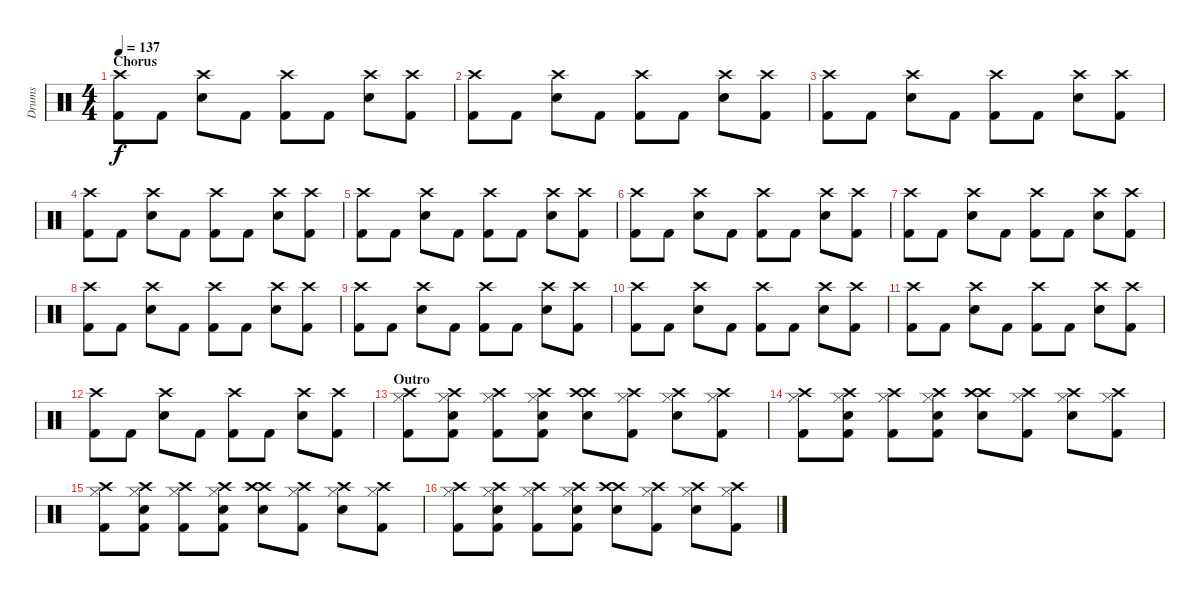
\track ("Drums" "Drums") {instrument percussion}
\staff {score}
\articulation defaults
\ts (4 4)
\section ("" "Chorus")
\tempo 137
\clef neutral
\ks c
("Kick (hit) 2" "Crash high (hit)").8{dy f} "Kick (hit) 2".8 ("Snare (hit) 2" "Crash high (hit)").8 "Kick (hit) 2".8 ("Kick (hit) 2" "Crash high (hit)").8 "Kick (hit) 2".8 ("Snare (hit) 2" "Crash high (hit)").8 ("Kick (hit) 2" "Crash high (hit)").8 |
("Kick (hit) 2" "Crash high (hit)").8 "Kick (hit) 2".8 ("Snare (hit) 2" "Crash high (hit)").8 "Kick (hit) 2".8 ("Kick (hit) 2" "Crash high (hit)").8 "Kick (hit) 2".8 ("Snare (hit) 2" "Crash high (hit)").8 ("Kick (hit) 2" "Crash high (hit)").8 |
("Kick (hit) 2" "Crash high (hit)").8 "Kick (hit) 2".8 ("Snare (hit) 2" "Crash high (hit)").8 "Kick (hit) 2".8 ("Kick (hit) 2" "Crash high (hit)").8 "Kick (hit) 2".8 ("Snare (hit) 2" "Crash high (hit)").8 ("Kick (hit) 2" "Crash high (hit)").8 |
("Kick (hit) 2" "Crash high (hit)").8 "Kick (hit) 2".8 ("Snare (hit) 2" "Crash high (hit)").8 "Kick (hit) 2".8 ("Kick (hit) 2" "Crash high (hit)").8 "Kick (hit) 2".8 ("Snare (hit) 2" "Crash high (hit)").8 ("Kick (hit) 2" "Crash high (hit)").8 |
("Kick (hit) 2" "Crash high (hit)").8 "Kick (hit) 2".8 ("Snare (hit) 2" "Crash high (hit)").8 "Kick (hit) 2".8 ("Kick (hit) 2" "Crash high (hit)").8 "Kick (hit) 2".8 ("Snare (hit) 2" "Crash high (hit)").8 ("Kick (hit) 2" "Crash high (hit)").8 |
("Kick (hit) 2" "Crash high (hit)").8 "Kick (hit) 2".8 ("Snare (hit) 2" "Crash high (hit)").8 "Kick (hit) 2".8 ("Kick (hit) 2" "Crash high (hit)").8 "Kick (hit) 2".8 ("Snare (hit) 2" "Crash high (hit)").8 ("Kick (hit) 2" "Crash high (hit)").8 |
("Kick (hit) 2" "Crash high (hit)").8 "Kick (hit) 2".8 ("Snare (hit) 2" "Crash high (hit)").8 "Kick (hit) 2".8 ("Kick (hit) 2" "Crash high (hit)").8 "Kick (hit) 2".8 ("Snare (hit) 2" "Crash high (hit)").8 ("Kick (hit) 2" "Crash high (hit)").8 |
("Kick (hit) 2" "Crash high (hit)").8 "Kick (hit) 2".8 ("Snare (hit) 2" "Crash high (hit)").8 "Kick (hit) 2".8 ("Kick (hit) 2" "Crash high (hit)").8 "Kick (hit) 2".8 ("Snare (hit) 2" "Crash high (hit)").8 ("Kick (hit) 2" "Crash high (hit)").8 |
("Kick (hit) 2" "Crash high (hit)").8 "Kick (hit) 2".8 ("Snare (hit) 2" "Crash high (hit)").8 "Kick (hit) 2".8 ("Kick (hit) 2" "Crash high (hit)").8 "Kick (hit) 2".8 ("Snare (hit) 2" "Crash high (hit)").8 ("Kick (hit) 2" "Crash high (hit)").8 |
("Kick (hit) 2" "Crash high (hit)").8 "Kick (hit) 2".8 ("Snare (hit) 2" "Crash high (hit)").8 "Kick (hit) 2".8 ("Kick (hit) 2" "Crash high (hit)").8 "Kick (hit) 2".8 ("Snare (hit) 2" "Crash high (hit)").8 ("Kick (hit) 2" "Crash high (hit)").8 |
("Kick (hit) 2" "Crash high (hit)").8 "Kick (hit) 2".8 ("Snare (hit) 2" "Crash high (hit)").8 "Kick (hit) 2".8 ("Kick (hit) 2" "Crash high (hit)").8 "Kick (hit) 2".8 ("Snare (hit) 2" "Crash high (hit)").8 ("Kick (hit) 2" "Crash high (hit)").8 |
("Kick (hit) 2" "Crash high (hit)").8 "Kick (hit) 2".8 ("Snare (hit) 2" "Crash high (hit)").8 "Kick (hit) 2".8 ("Kick (hit) 2" "Crash high (hit)").8 "Kick (hit) 2".8 ("Snare (hit) 2" "Crash high (hit)").8 ("Kick (hit) 2" "Crash high (hit)").8 |
\section ("" "Outro")
("Kick (hit) 2" "Crash high (hit)" "Hi-Hat (closed)").8 ("Kick (hit) 2" "Crash high (hit)" "Snare (hit) 2" "Hi-Hat (closed)").8 ("Kick (hit) 2" "Crash high (hit)" "Hi-Hat (closed)").8 ("Kick (hit) 2" "Crash high (hit)" "Snare (hit) 2" "Hi-Hat (closed)").8 ("Crash high (hit)" "Crash high (hit)" "Snare (hit) 2").8 ("Kick (hit) 2" "Crash high (hit)" "Hi-Hat (closed)").8 ("Crash high (hit)" "Snare (hit) 2" "Hi-Hat (closed)").8 ("Kick (hit) 2" "Crash high (hit)" "Hi-Hat (closed)").8 |
("Kick (hit) 2" "Crash high (hit)" "Hi-Hat (closed)").8 ("Kick (hit) 2" "Crash high (hit)" "Snare (hit) 2" "Hi-Hat (closed)").8 ("Kick (hit) 2" "Crash high (hit)" "Hi-Hat (closed)").8 ("Kick (hit) 2" "Crash high (hit)" "Snare (hit) 2" "Hi-Hat (closed)").8 ("Crash high (hit)" "Crash high (hit)" "Snare (hit) 2").8 ("Kick (hit) 2" "Crash high (hit)" "Hi-Hat (closed)").8 ("Crash high (hit)" "Snare (hit) 2" "Hi-Hat (closed)").8 ("Kick (hit) 2" "Crash high (hit)" "Hi-Hat (closed)").8 |
("Kick (hit) 2" "Crash high (hit)" "Hi-Hat (closed)").8 ("Kick (hit) 2" "Crash high (hit)" "Snare (hit) 2" "Hi-Hat (closed)").8 ("Kick (hit) 2" "Crash high (hit)" "Hi-Hat (closed)").8 ("Kick (hit) 2" "Crash high (hit)" "Snare (hit) 2" "Hi-Hat (closed)").8 ("Crash high (hit)" "Crash high (hit)" "Snare (hit) 2").8 ("Kick (hit) 2" "Crash high (hit)" "Hi-Hat (closed)").8 ("Crash high (hit)" "Snare (hit) 2" "Hi-Hat (closed)").8 ("Kick (hit) 2" "Crash high (hit)" "Hi-Hat (closed)").8 |
("Kick (hit) 2" "Crash high (hit)" "Hi-Hat (closed)").8 ("Kick (hit) 2" "Crash high (hit)" "Snare (hit) 2" "Hi-Hat (closed)").8 ("Kick (hit) 2" "Crash high (hit)" "Hi-Hat (closed)").8 ("Kick (hit) 2" "Crash high (hit)" "Snare (hit) 2" "Hi-Hat (closed)").8 ("Crash high (hit)" "Crash high (hit)" "Snare (hit) 2").8 ("Kick (hit) 2" "Crash high (hit)" "Hi-Hat (closed)").8 ("Crash high (hit)" "Snare (hit) 2" "Hi-Hat (closed)").8 ("Kick (hit) 2" "Crash high (hit)" "Hi-Hat (closed)").8
